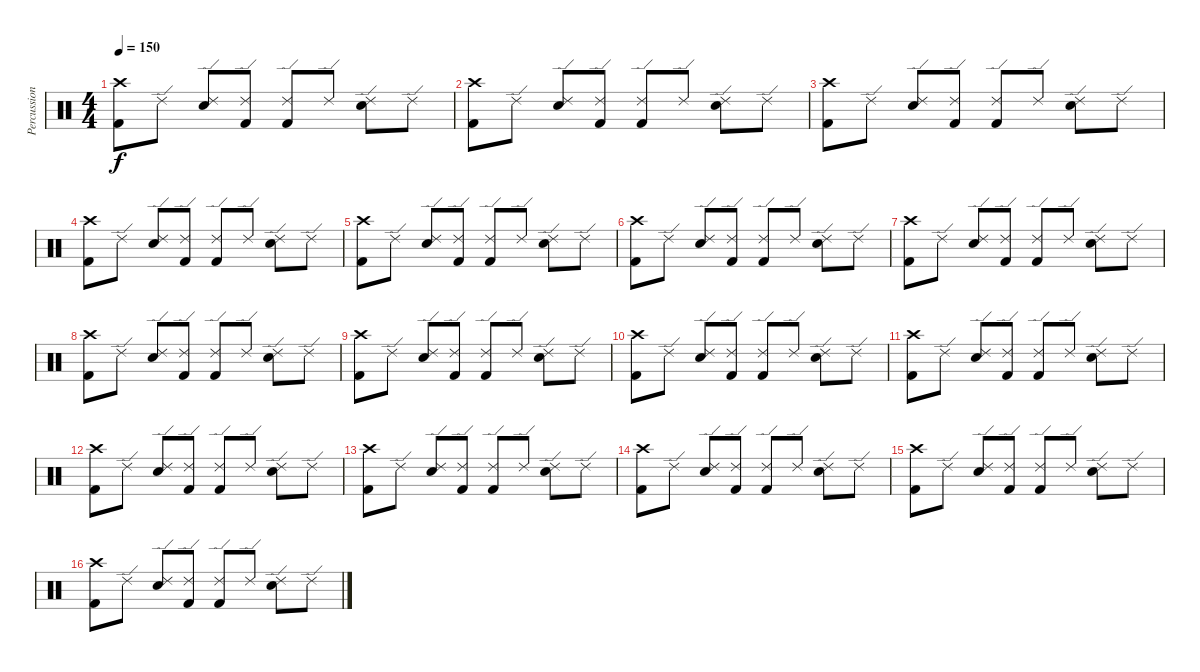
\track ("Percussion" "Percussion") {instrument percussion}
\staff {score}
\articulation defaults
\ts (4 4)
\tempo 150
\clef neutral
\ks c
("Crash high (hit)" "Kick (hit) 2").8{dy f} "Ride (edge) 2".8 ("Ride (edge) 2" "Electric Snare (hit)").8 ("Ride (edge) 2" "Kick (hit) 2").8 ("Ride (edge) 2" "Kick (hit) 2").8 "Ride (edge) 2".8 ("Ride (edge) 2" "Electric Snare (hit)").8 "Ride (edge) 2".8 |
("Crash high (hit)" "Kick (hit) 2").8 "Ride (edge) 2".8 ("Ride (edge) 2" "Electric Snare (hit)").8 ("Ride (edge) 2" "Kick (hit) 2").8 ("Ride (edge) 2" "Kick (hit) 2").8 "Ride (edge) 2".8 ("Ride (edge) 2" "Electric Snare (hit)").8 "Ride (edge) 2".8 |
("Crash high (hit)" "Kick (hit) 2").8 "Ride (edge) 2".8 ("Ride (edge) 2" "Electric Snare (hit)").8 ("Ride (edge) 2" "Kick (hit) 2").8 ("Ride (edge) 2" "Kick (hit) 2").8 "Ride (edge) 2".8 ("Ride (edge) 2" "Electric Snare (hit)").8 "Ride (edge) 2".8 |
("Crash high (hit)" "Kick (hit) 2").8 "Ride (edge) 2".8 ("Ride (edge) 2" "Electric Snare (hit)").8 ("Ride (edge) 2" "Kick (hit) 2").8 ("Ride (edge) 2" "Kick (hit) 2").8 "Ride (edge) 2".8 ("Ride (edge) 2" "Electric Snare (hit)").8 "Ride (edge) 2".8 |
("Crash high (hit)" "Kick (hit) 2").8 "Ride (edge) 2".8 ("Ride (edge) 2" "Electric Snare (hit)").8 ("Ride (edge) 2" "Kick (hit) 2").8 ("Ride (edge) 2" "Kick (hit) 2").8 "Ride (edge) 2".8 ("Ride (edge) 2" "Electric Snare (hit)").8 "Ride (edge) 2".8 |
("Crash high (hit)" "Kick (hit) 2").8 "Ride (edge) 2".8 ("Ride (edge) 2" "Electric Snare (hit)").8 ("Ride (edge) 2" "Kick (hit) 2").8 ("Ride (edge) 2" "Kick (hit) 2").8 "Ride (edge) 2".8 ("Ride (edge) 2" "Electric Snare (hit)").8 "Ride (edge) 2".8 |
("Crash high (hit)" "Kick (hit) 2").8 "Ride (edge) 2".8 ("Ride (edge) 2" "Electric Snare (hit)").8 ("Ride (edge) 2" "Kick (hit) 2").8 ("Ride (edge) 2" "Kick (hit) 2").8 "Ride (edge) 2".8 ("Ride (edge) 2" "Electric Snare (hit)").8 "Ride (edge) 2".8 |
("Crash high (hit)" "Kick (hit) 2").8 "Ride (edge) 2".8 ("Ride (edge) 2" "Electric Snare (hit)").8 ("Ride (edge) 2" "Kick (hit) 2").8 ("Ride (edge) 2" "Kick (hit) 2").8 "Ride (edge) 2".8 ("Ride (edge) 2" "Electric Snare (hit)").8 "Ride (edge) 2".8 |
("Crash high (hit)" "Kick (hit) 2").8 "Ride (edge) 2".8 ("Ride (edge) 2" "Electric Snare (hit)").8 ("Ride (edge) 2" "Kick (hit) 2").8 ("Ride (edge) 2" "Kick (hit) 2").8 "Ride (edge) 2".8 ("Ride (edge) 2" "Electric Snare (hit)").8 "Ride (edge) 2".8 |
("Crash high (hit)" "Kick (hit) 2").8 "Ride (edge) 2".8 ("Ride (edge) 2" "Electric Snare (hit)").8 ("Ride (edge) 2" "Kick (hit) 2").8 ("Ride (edge) 2" "Kick (hit) 2").8 "Ride (edge) 2".8 ("Ride (edge) 2" "Electric Snare (hit)").8 "Ride (edge) 2".8 |
("Crash high (hit)" "Kick (hit) 2").8 "Ride (edge) 2".8 ("Ride (edge) 2" "Electric Snare (hit)").8 ("Ride (edge) 2" "Kick (hit) 2").8 ("Ride (edge) 2" "Kick (hit) 2").8 "Ride (edge) 2".8 ("Ride (edge) 2" "Electric Snare (hit)").8 "Ride (edge) 2".8 |
("Crash high (hit)" "Kick (hit) 2").8 "Ride (edge) 2".8 ("Ride (edge) 2" "Electric Snare (hit)").8 ("Ride (edge) 2" "Kick (hit) 2").8 ("Ride (edge) 2" "Kick (hit) 2").8 "Ride (edge) 2".8 ("Ride (edge) 2" "Electric Snare (hit)").8 "Ride (edge) 2".8 |
("Crash high (hit)" "Kick (hit) 2").8 "Ride (edge) 2".8 ("Ride (edge) 2" "Electric Snare (hit)").8 ("Ride (edge) 2" "Kick (hit) 2").8 ("Ride (edge) 2" "Kick (hit) 2").8 "Ride (edge) 2".8 ("Ride (edge) 2" "Electric Snare (hit)").8 "Ride (edge) 2".8 |
("Crash high (hit)" "Kick (hit) 2").8 "Ride (edge) 2".8 ("Ride (edge) 2" "Electric Snare (hit)").8 ("Ride (edge) 2" "Kick (hit) 2").8 ("Ride (edge) 2" "Kick (hit) 2").8 "Ride (edge) 2".8 ("Ride (edge) 2" "Electric Snare (hit)").8 "Ride (edge) 2".8 |
("Crash high (hit)" "Kick (hit) 2").8 "Ride (edge) 2".8 ("Ride (edge) 2" "Electric Snare (hit)").8 ("Ride (edge) 2" "Kick (hit) 2").8 ("Ride (edge) 2" "Kick (hit) 2").8 "Ride (edge) 2".8 ("Ride (edge) 2" "Electric Snare (hit)").8 "Ride (edge) 2".8 |
("Crash high (hit)" "Kick (hit) 2").8 "Ride (edge) 2".8 ("Ride (edge) 2" "Electric Snare (hit)").8 ("Ride (edge) 2" "Kick (hit) 2").8 ("Ride (edge) 2" "Kick (hit) 2").8 "Ride (edge) 2".8 ("Ride (edge) 2" "Electric Snare (hit)").8 "Ride (edge) 2".8
